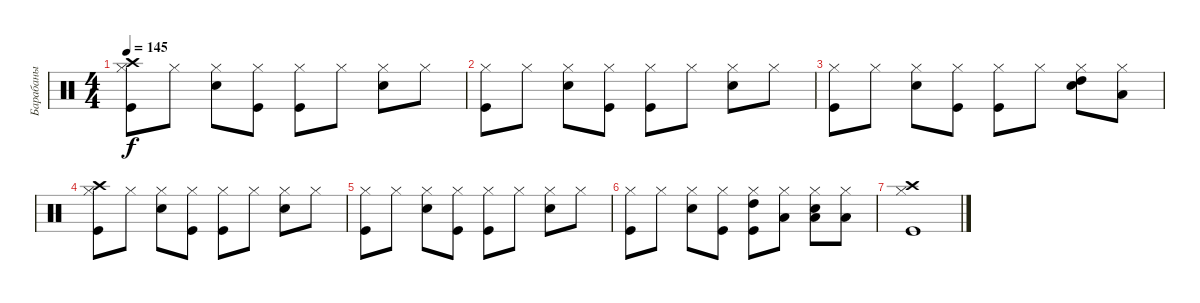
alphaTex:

\track ("Барабаны" "Барабаны") {instrument percussion}
\staff {score}
\articulation defaults
\ts (4 4)
\tempo 145
\clef neutral
\ks c
("Kick (hit)" "Hi-Hat (closed)" "Crash high (hit)").8{dy f} "Hi-Hat (closed)".8 ("Snare (hit) 2" "Hi-Hat (closed)").8 ("Kick (hit)" "Hi-Hat (closed)").8 ("Kick (hit)" "Hi-Hat (closed)").8 "Hi-Hat (closed)".8 ("Snare (hit) 2" "Hi-Hat (closed)").8 "Hi-Hat (closed)".8 |
("Kick (hit)" "Hi-Hat (closed)").8 "Hi-Hat (closed)".8 ("Snare (hit) 2" "Hi-Hat (closed)").8 ("Kick (hit)" "Hi-Hat (closed)").8 ("Kick (hit)" "Hi-Hat (closed)").8 "Hi-Hat (closed)".8 ("Snare (hit) 2" "Hi-Hat (closed)").8 "Hi-Hat (closed)".8 |
("Kick (hit)" "Hi-Hat (closed)").8 "Hi-Hat (closed)".8 ("Snare (hit) 2" "Hi-Hat (closed)").8 ("Kick (hit)" "Hi-Hat (closed)").8 ("Kick (hit)" "Hi-Hat (closed)").8 "Hi-Hat (closed)".8 ("Snare (hit) 2" "Hi-Hat (closed)" "High Tom (hit)").8 ("Hi-Hat (closed)" "Low Tom (hit)").8 |
("Kick (hit)" "Hi-Hat (closed)" "Crash high (hit)").8 "Hi-Hat (closed)".8 ("Snare (hit) 2" "Hi-Hat (closed)").8 ("Kick (hit)" "Hi-Hat (closed)").8 ("Kick (hit)" "Hi-Hat (closed)").8 "Hi-Hat (closed)".8 ("Snare (hit) 2" "Hi-Hat (closed)").8 "Hi-Hat (closed)".8 |
("Kick (hit)" "Hi-Hat (closed)").8 "Hi-Hat (closed)".8 ("Snare (hit) 2" "Hi-Hat (closed)").8 ("Kick (hit)" "Hi-Hat (closed)").8 ("Kick (hit)" "Hi-Hat (closed)").8 "Hi-Hat (closed)".8 ("Snare (hit) 2" "Hi-Hat (closed)").8 "Hi-Hat (closed)".8 |
("Kick (hit)" "Hi-Hat (closed)").8 "Hi-Hat (closed)".8 ("Snare (hit) 2" "Hi-Hat (closed)").8 ("Kick (hit)" "Hi-Hat (closed)").8 ("Kick (hit)" "Hi-Hat (closed)" "High Tom (hit)").8 ("Hi-Hat (closed)" "Low Tom (hit)").8 ("Snare (hit) 2" "Hi-Hat (closed)" "Low Tom (hit)").8 ("Hi-Hat (closed)" "Low Tom (hit)").8 |
("Kick (hit)" "Hi-Hat (closed)" "Crash high (hit)").1
